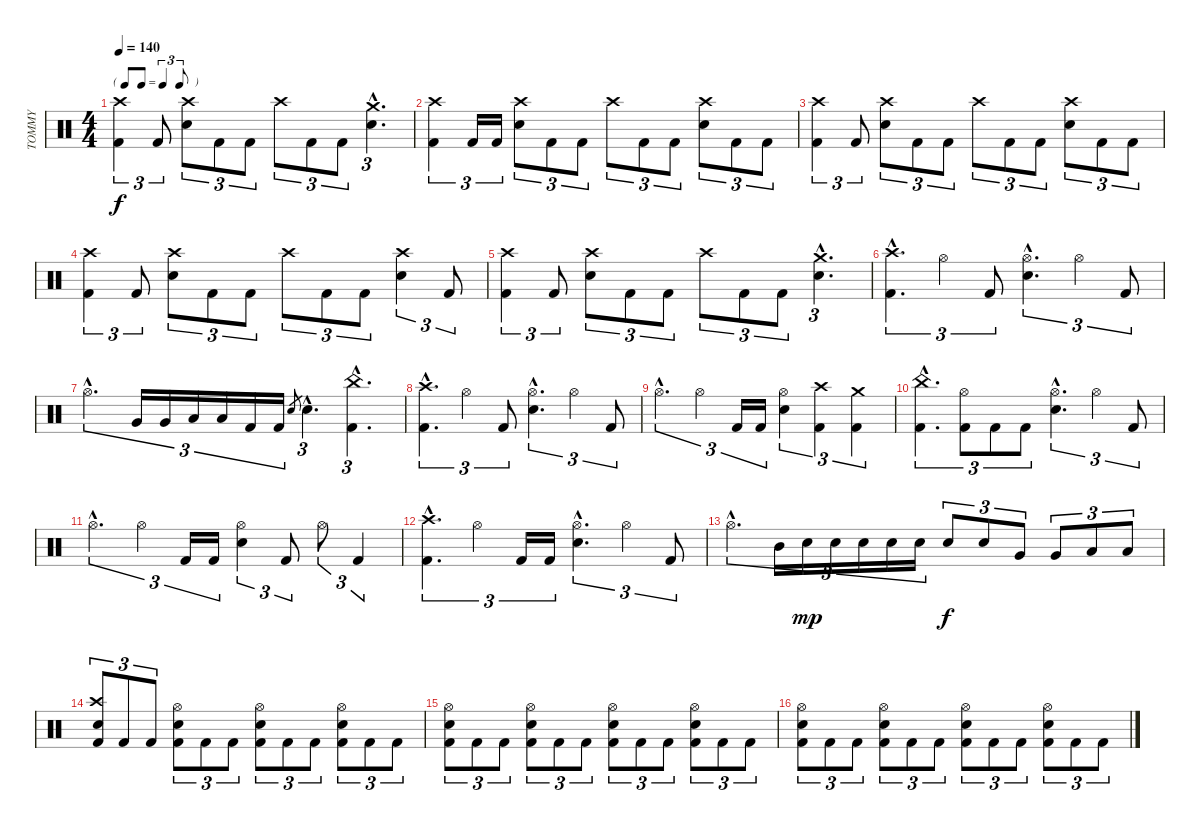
\track ("TOMMY" "TOMMY") {instrument percussion}
\staff {score}
\articulation defaults
\ts (4 4)
\tf triplet8th
\tempo 140
\clef neutral
\ks c
("Kick (hit) 2" "Crash high (hit)").4{tu (3 2) dy f} "Kick (hit) 2".8{tu (3 2)} ("Snare (hit) 2" "Crash high (hit)").8{tu (3 2)} "Kick (hit) 2".8{tu (3 2)} "Kick (hit) 2".8{tu (3 2)} "Crash high (hit)".8{tu (3 2)} "Kick (hit) 2".8{tu (3 2)} "Kick (hit) 2".8{tu (3 2)} ("Snare (hit) 2"{hac} "Crash medium (hit)"{hac}).4{d tu (3 2)} |
("Kick (hit) 2" "Crash high (hit)").4{tu (3 2)} "Kick (hit) 2".16{tu (3 2)} "Kick (hit) 2".16{tu (3 2)} ("Snare (hit) 2" "Crash high (hit)").8{tu (3 2)} "Kick (hit) 2".8{tu (3 2)} "Kick (hit) 2".8{tu (3 2)} "Crash high (hit)".8{tu (3 2)} "Kick (hit) 2".8{tu (3 2)} "Kick (hit) 2".8{tu (3 2)} ("Snare (hit) 2" "Crash high (hit)").8{tu (3 2)} "Kick (hit) 2".8{tu (3 2)} "Kick (hit) 2".8{tu (3 2)} |
("Kick (hit) 2" "Crash high (hit)").4{tu (3 2)} "Kick (hit) 2".8{tu (3 2)} ("Snare (hit) 2" "Crash high (hit)").8{tu (3 2)} "Kick (hit) 2".8{tu (3 2)} "Kick (hit) 2".8{tu (3 2)} "Crash high (hit)".8{tu (3 2)} "Kick (hit) 2".8{tu (3 2)} "Kick (hit) 2".8{tu (3 2)} ("Snare (hit) 2" "Crash high (hit)").8{tu (3 2)} "Kick (hit) 2".8{tu (3 2)} "Kick (hit) 2".8{tu (3 2)} |
("Kick (hit) 2" "Crash high (hit)").4{tu (3 2)} "Kick (hit) 2".8{tu (3 2)} ("Snare (hit) 2" "Crash high (hit)").8{tu (3 2)} "Kick (hit) 2".8{tu (3 2)} "Kick (hit) 2".8{tu (3 2)} "Crash high (hit)".8{tu (3 2)} "Kick (hit) 2".8{tu (3 2)} "Kick (hit) 2".8{tu (3 2)} ("Snare (hit) 2" "Crash high (hit)").4{tu (3 2)} "Kick (hit) 2".8{tu (3 2)} |
("Kick (hit) 2" "Crash high (hit)").4{tu (3 2)} "Kick (hit) 2".8{tu (3 2)} ("Snare (hit) 2" "Crash high (hit)").8{tu (3 2)} "Kick (hit) 2".8{tu (3 2)} "Kick (hit) 2".8{tu (3 2)} "Crash high (hit)".8{tu (3 2)} "Kick (hit) 2".8{tu (3 2)} "Kick (hit) 2".8{tu (3 2)} ("Snare (hit) 2"{hac} "Crash medium (hit)"{hac}).4{d tu (3 2)} |
("Kick (hit) 2"{hac} "Crash high (hit)"{hac}).4{d tu (3 2)} "Hi-Hat (open)".4{tu (3 2)} "Kick (hit) 2".8{tu (3 2)} ("Snare (hit) 2"{hac} "Hi-Hat (open)"{hac}).4{d tu (3 2)} "Hi-Hat (open)".4{tu (3 2)} "Kick (hit) 2".8{tu (3 2)} |
"Hi-Hat (open)"{hac}.4{d tu (3 2)} "Very Low Tom (hit)".16{tu (3 2)} "Very Low Tom (hit)".16{tu (3 2)} "Low Floor Tom (hit)".16{tu (3 2)} "Low Floor Tom (hit)".16{tu (3 2)} "Kick (hit) 2".16{tu (3 2)} "Kick (hit) 2".16{tu (3 2)} "Snare (hit) 2".8{gr} "Snare (hit) 2"{hac}.4{d tu (3 2)} ("Kick (hit) 2"{hac} "China (hit)"{hac}).4{d tu (3 2)} |
("Kick (hit) 2"{hac} "Crash high (hit)"{hac}).4{d tu (3 2)} "Hi-Hat (open)".4{tu (3 2)} "Kick (hit) 2".8{tu (3 2)} ("Snare (hit) 2"{hac} "Hi-Hat (open)"{hac}).4{d tu (3 2)} "Hi-Hat (open)".4{tu (3 2)} "Kick (hit) 2".8{tu (3 2)} |
"Hi-Hat (open)"{hac}.4{d tu (3 2)} "Hi-Hat (open)".4{tu (3 2)} "Kick (hit) 2".16{tu (3 2)} "Kick (hit) 2".16{tu (3 2)} ("Snare (hit) 2" "Hi-Hat (open)").4{tu (3 2)} ("Kick (hit) 2" "Crash high (hit)").4{tu (3 2)} ("Kick (hit) 2" "Crash medium (hit)").4{tu (3 2)} |
("Kick (hit) 2"{hac} "China (hit)"{hac}).4{d tu (3 2)} ("Kick (hit) 2" "Hi-Hat (open)").8{tu (3 2)} "Kick (hit) 2".8{tu (3 2)} "Kick (hit) 2".8{tu (3 2)} ("Snare (hit) 2"{hac} "Hi-Hat (open)"{hac}).4{d tu (3 2)} "Hi-Hat (open)".4{tu (3 2)} "Kick (hit) 2".8{tu (3 2)} |
"Hi-Hat (open)"{hac}.4{d tu (3 2)} "Hi-Hat (open)".4{tu (3 2)} "Kick (hit) 2".16{tu (3 2)} "Kick (hit) 2".16{tu (3 2)} ("Snare (hit) 2" "Hi-Hat (open)").4{tu (3 2)} "Kick (hit) 2".8{tu (3 2)} "Hi-Hat (open)".8{tu (3 2)} "Kick (hit) 2".4{tu (3 2)} |
("Kick (hit) 2"{hac} "Crash high (hit)"{hac}).4{d tu (3 2)} "Hi-Hat (open)".4{tu (3 2)} "Kick (hit) 2".16{tu (3 2)} "Kick (hit) 2".16{tu (3 2)} ("Snare (hit) 2"{hac} "Hi-Hat (open)"{hac}).4{d tu (3 2)} "Hi-Hat (open)".4{tu (3 2)} "Kick (hit) 2".8{tu (3 2)} |
"Hi-Hat (open)"{hac}.4{d tu (3 2)} "Mid Tom (hit)".16{tu (3 2)} "Snare (hit) 2".16{tu (3 2) dy mp} "Snare (hit) 2".16{tu (3 2)} "Snare (hit) 2".16{tu (3 2)} "Snare (hit) 2".16{tu (3 2)} "Snare (hit) 2".16{tu (3 2)} "Snare (hit) 2".8{tu (3 2) dy f} "Snare (hit) 2".8{tu (3 2)} "Very Low Tom (hit)".8{tu (3 2)} "Very Low Tom (hit)".8{tu (3 2)} "Low Floor Tom (hit)".8{tu (3 2)} "Low Floor Tom (hit)".8{tu (3 2)} |
("Snare (hit) 2" "Kick (hit) 2" "Crash high (hit)").8{tu (3 2)} "Kick (hit) 2".8{tu (3 2)} "Kick (hit) 2".8{tu (3 2)} ("Snare (hit) 2" "Kick (hit) 2" "Hi-Hat (open)").8{tu (3 2)} "Kick (hit) 2".8{tu (3 2)} "Kick (hit) 2".8{tu (3 2)} ("Snare (hit) 2" "Kick (hit) 2" "Hi-Hat (open)").8{tu (3 2)} "Kick (hit) 2".8{tu (3 2)} "Kick (hit) 2".8{tu (3 2)} ("Snare (hit) 2" "Kick (hit) 2" "Hi-Hat (open)").8{tu (3 2)} "Kick (hit) 2".8{tu (3 2)} "Kick (hit) 2".8{tu (3 2)} |
("Snare (hit) 2" "Kick (hit) 2" "Hi-Hat (open)").8{tu (3 2)} "Kick (hit) 2".8{tu (3 2)} "Kick (hit) 2".8{tu (3 2)} ("Snare (hit) 2" "Kick (hit) 2" "Hi-Hat (open)").8{tu (3 2)} "Kick (hit) 2".8{tu (3 2)} "Kick (hit) 2".8{tu (3 2)} ("Snare (hit) 2" "Kick (hit) 2" "Hi-Hat (open)").8{tu (3 2)} "Kick (hit) 2".8{tu (3 2)} "Kick (hit) 2".8{tu (3 2)} ("Snare (hit) 2" "Kick (hit) 2" "Hi-Hat (open)").8{tu (3 2)} "Kick (hit) 2".8{tu (3 2)} "Kick (hit) 2".8{tu (3 2)} |
("Snare (hit) 2" "Kick (hit) 2" "Hi-Hat (open)").8{tu (3 2)} "Kick (hit) 2".8{tu (3 2)} "Kick (hit) 2".8{tu (3 2)} ("Snare (hit) 2" "Kick (hit) 2" "Hi-Hat (open)").8{tu (3 2)} "Kick (hit) 2".8{tu (3 2)} "Kick (hit) 2".8{tu (3 2)} ("Snare (hit) 2" "Kick (hit) 2" "Hi-Hat (open)").8{tu (3 2)} "Kick (hit) 2".8{tu (3 2)} "Kick (hit) 2".8{tu (3 2)} ("Snare (hit) 2" "Kick (hit) 2" "Hi-Hat (open)").8{tu (3 2)} "Kick (hit) 2".8{tu (3 2)} "Kick (hit) 2".8{tu (3 2)}
